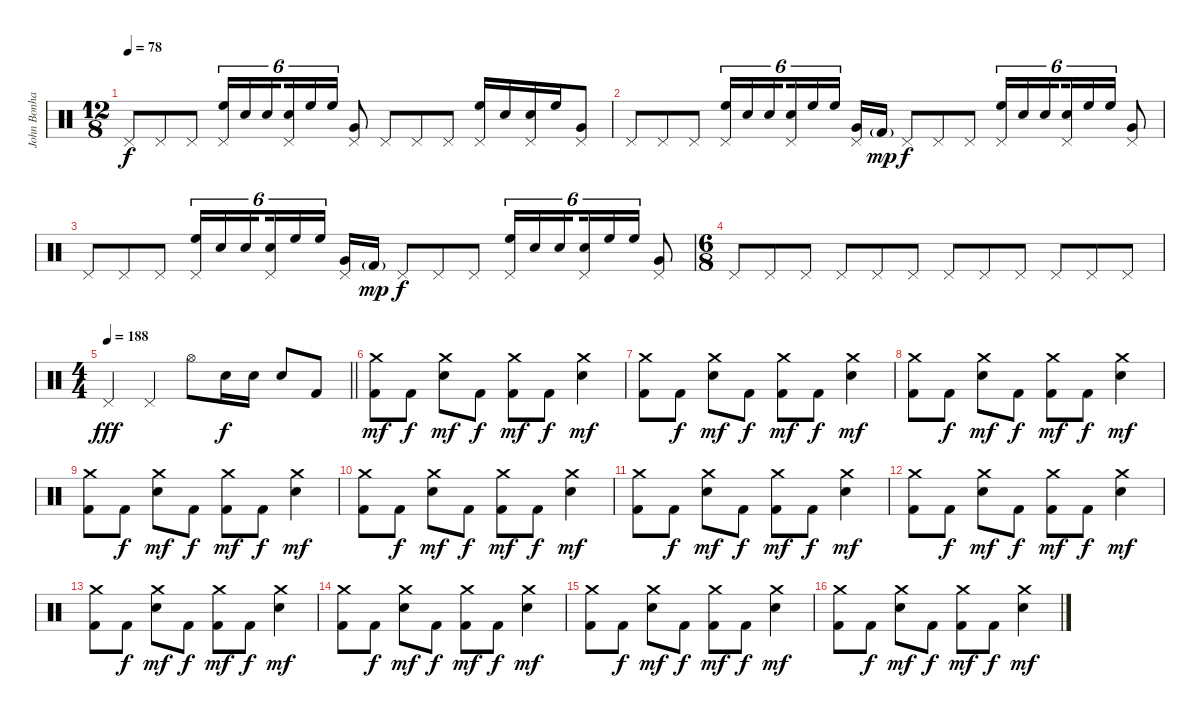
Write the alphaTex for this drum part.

\track ("John Bonham - Drums" "John Bonha") {instrument percussion}
\staff {score}
\articulation defaults
\ts (12 8)
\tempo 78
\clef neutral
\ks c "Pedal Hi-Hat (hit)".8{dy f} "Pedal Hi-Hat (hit)".8 "Pedal Hi-Hat (hit)".8
("Pedal Hi-Hat (hit)" "High Floor Tom (hit)").16{tu (6 4)} "Snare (hit) 2".16{tu (6 4)} "Snare (hit) 2".16{tu (6 4) beam splitsecondary} ("Pedal Hi-Hat (hit)" "Snare (hit) 2").16{tu (6 4)} "High Floor Tom (hit)".16{tu (6 4)} "High Floor Tom (hit)".16{tu (6 4)} ("Pedal Hi-Hat (hit)" "Very Low Tom (hit)").8 "Pedal Hi-Hat (hit)".8 "Pedal Hi-Hat (hit)".8 "Pedal Hi-Hat (hit)".8 ("Pedal Hi-Hat (hit)" "High Floor Tom (hit)").16 "Snare (hit) 2".16 ("Pedal Hi-Hat (hit)" "Snare (hit) 2").16 "High Floor Tom (hit)".16 ("Pedal Hi-Hat (hit)" "Very Low Tom (hit)").8 |
"Pedal Hi-Hat (hit)".8 "Pedal Hi-Hat (hit)".8 "Pedal Hi-Hat (hit)".8 ("Pedal Hi-Hat (hit)" "High Floor Tom (hit)").16{tu (6 4)} "Snare (hit) 2".16{tu (6 4)} "Snare (hit) 2".16{tu (6 4) beam splitsecondary} ("Pedal Hi-Hat (hit)" "Snare (hit) 2").16{tu (6 4)} "High Floor Tom (hit)".16{tu (6 4)} "High Floor Tom (hit)".16{tu (6 4) beam splitsecondary} ("Pedal Hi-Hat (hit)" "Very Low Tom (hit)").16 "Kick (hit) 2"{g}.16{dy mp} "Pedal Hi-Hat (hit)".8{dy f} "Pedal Hi-Hat (hit)".8 "Pedal Hi-Hat (hit)".8 ("Pedal Hi-Hat (hit)" "High Floor Tom (hit)").16{tu (6 4)} "Snare (hit) 2".16{tu (6 4)} "Snare (hit) 2".16{tu (6 4) beam splitsecondary} ("Pedal Hi-Hat (hit)" "Snare (hit) 2").16{tu (6 4)} "High Floor Tom (hit)".16{tu (6 4)} "High Floor Tom (hit)".16{tu (6 4)} ("Pedal Hi-Hat (hit)" "Very Low Tom (hit)").8 |
"Pedal Hi-Hat (hit)".8 "Pedal Hi-Hat (hit)".8 "Pedal Hi-Hat (hit)".8 ("Pedal Hi-Hat (hit)" "High Floor Tom (hit)").16{tu (6 4)} "Snare (hit) 2".16{tu (6 4)} "Snare (hit) 2".16{tu (6 4) beam splitsecondary} ("Pedal Hi-Hat (hit)" "Snare (hit) 2").16{tu (6 4)} "High Floor Tom (hit)".16{tu (6 4)} "High Floor Tom (hit)".16{tu (6 4) beam splitsecondary} ("Pedal Hi-Hat (hit)" "Very Low Tom (hit)").16 "Kick (hit) 2"{g}.16{dy mp} "Pedal Hi-Hat (hit)".8{dy f} "Pedal Hi-Hat (hit)".8 "Pedal Hi-Hat (hit)".8 ("Pedal Hi-Hat (hit)" "High Floor Tom (hit)").16{tu (6 4)} "Snare (hit) 2".16{tu (6 4)} "Snare (hit) 2".16{tu (6 4) beam splitsecondary} ("Pedal Hi-Hat (hit)" "Snare (hit) 2").16{tu (6 4)} "High Floor Tom (hit)".16{tu (6 4)} "High Floor Tom (hit)".16{tu (6 4)} ("Pedal Hi-Hat (hit)" "Very Low Tom (hit)").8 |
\ts (6 8)
"Pedal Hi-Hat (hit)".8 "Pedal Hi-Hat (hit)".8 "Pedal Hi-Hat (hit)".8 "Pedal Hi-Hat (hit)".8 "Pedal Hi-Hat (hit)".8 "Pedal Hi-Hat (hit)".8 "Pedal Hi-Hat (hit)".8 "Pedal Hi-Hat (hit)".8 "Pedal Hi-Hat (hit)".8 "Pedal Hi-Hat (hit)".8 "Pedal Hi-Hat (hit)".8 "Pedal Hi-Hat (hit)".8 |
\ts (4 4)
\tempo 188
\barLineRight lightlight "Pedal Hi-Hat (hit)".4{dy fff volume 16} "Pedal Hi-Hat (hit)".4 "Hi-Hat (open)".8 "Snare (hit) 2".16{dy f} "Snare (hit) 2".16 "Snare (hit) 2".8 "Kick (hit) 2".8
|
("Crash medium (hit)" "Kick (hit) 2").8{dy mf volume 11} "Kick (hit) 2".8{dy f} ("Crash medium (hit)" "Electric Snare (hit)").8{dy mf} "Kick (hit) 2".8{dy f} ("Crash medium (hit)" "Kick (hit) 2").8{dy mf} "Kick (hit) 2".8{dy f} ("Crash medium (hit)" "Electric Snare (hit)").4{dy mf} |
("Crash medium (hit)" "Kick (hit) 2").8 "Kick (hit) 2".8{dy f} ("Crash medium (hit)" "Electric Snare (hit)").8{dy mf} "Kick (hit) 2".8{dy f} ("Crash medium (hit)" "Kick (hit) 2").8{dy mf} "Kick (hit) 2".8{dy f} ("Crash medium (hit)" "Electric Snare (hit)").4{dy mf} |
("Crash medium (hit)" "Kick (hit) 2").8 "Kick (hit) 2".8{dy f} ("Crash medium (hit)" "Electric Snare (hit)").8{dy mf} "Kick (hit) 2".8{dy f} ("Crash medium (hit)" "Kick (hit) 2").8{dy mf} "Kick (hit) 2".8{dy f} ("Crash medium (hit)" "Electric Snare (hit)").4{dy mf} |
("Crash medium (hit)" "Kick (hit) 2").8 "Kick (hit) 2".8{dy f} ("Crash medium (hit)" "Electric Snare (hit)").8{dy mf} "Kick (hit) 2".8{dy f} ("Crash medium (hit)" "Kick (hit) 2").8{dy mf} "Kick (hit) 2".8{dy f} ("Crash medium (hit)" "Electric Snare (hit)").4{dy mf} |
("Crash medium (hit)" "Kick (hit) 2").8 "Kick (hit) 2".8{dy f} ("Crash medium (hit)" "Electric Snare (hit)").8{dy mf} "Kick (hit) 2".8{dy f} ("Crash medium (hit)" "Kick (hit) 2").8{dy mf} "Kick (hit) 2".8{dy f} ("Crash medium (hit)" "Electric Snare (hit)").4{dy mf} |
("Crash medium (hit)" "Kick (hit) 2").8 "Kick (hit) 2".8{dy f} ("Crash medium (hit)" "Electric Snare (hit)").8{dy mf} "Kick (hit) 2".8{dy f} ("Crash medium (hit)" "Kick (hit) 2").8{dy mf} "Kick (hit) 2".8{dy f} ("Crash medium (hit)" "Electric Snare (hit)").4{dy mf} |
("Crash medium (hit)" "Kick (hit) 2").8 "Kick (hit) 2".8{dy f} ("Crash medium (hit)" "Electric Snare (hit)").8{dy mf} "Kick (hit) 2".8{dy f} ("Crash medium (hit)" "Kick (hit) 2").8{dy mf} "Kick (hit) 2".8{dy f} ("Crash medium (hit)" "Electric Snare (hit)").4{dy mf} |
("Crash medium (hit)" "Kick (hit) 2").8 "Kick (hit) 2".8{dy f} ("Crash medium (hit)" "Electric Snare (hit)").8{dy mf} "Kick (hit) 2".8{dy f} ("Crash medium (hit)" "Kick (hit) 2").8{dy mf} "Kick (hit) 2".8{dy f} ("Crash medium (hit)" "Electric Snare (hit)").4{dy mf} |
("Crash medium (hit)" "Kick (hit) 2").8 "Kick (hit) 2".8{dy f} ("Crash medium (hit)" "Electric Snare (hit)").8{dy mf} "Kick (hit) 2".8{dy f} ("Crash medium (hit)" "Kick (hit) 2").8{dy mf} "Kick (hit) 2".8{dy f} ("Crash medium (hit)" "Electric Snare (hit)").4{dy mf} |
("Crash medium (hit)" "Kick (hit) 2").8 "Kick (hit) 2".8{dy f} ("Crash medium (hit)" "Electric Snare (hit)").8{dy mf} "Kick (hit) 2".8{dy f} ("Crash medium (hit)" "Kick (hit) 2").8{dy mf} "Kick (hit) 2".8{dy f} ("Crash medium (hit)" "Electric Snare (hit)").4{dy mf} |
("Crash medium (hit)" "Kick (hit) 2").8 "Kick (hit) 2".8{dy f} ("Crash medium (hit)" "Electric Snare (hit)").8{dy mf} "Kick (hit) 2".8{dy f} ("Crash medium (hit)" "Kick (hit) 2").8{dy mf} "Kick (hit) 2".8{dy f} ("Crash medium (hit)" "Electric Snare (hit)").4{dy mf}
